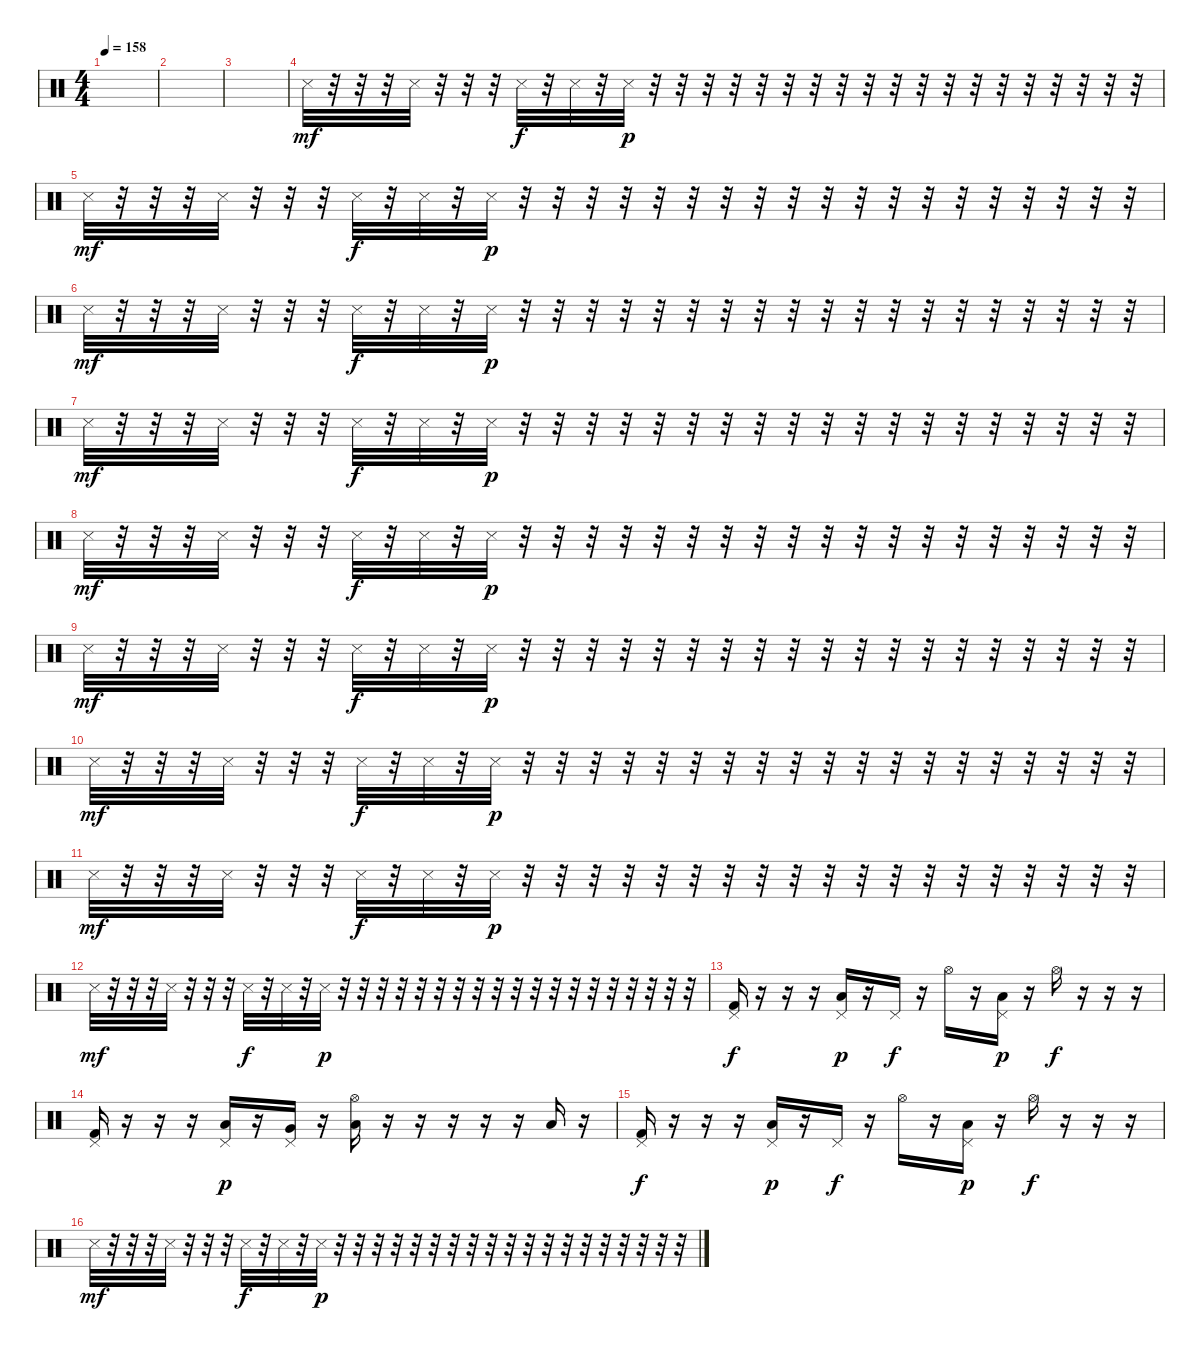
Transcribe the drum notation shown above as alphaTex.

\track ("   " "   ") {instrument percussion}
\staff
\articulation defaults
\ts (4 4)
\tempo 158
\clef neutral
\ks c
|
|
|
"Snare (side stick) 3".32{dy mf} r.32 r.32 r.32 "Snare (side stick) 3".32 r.32 r.32 r.32 "Snare (side stick) 3".32{dy f} r.32 "Snare (side stick) 3".32 r.32 "Snare (side stick) 3".32{dy p} r.32 r.32 r.32 r.32 r.32 r.32 r.32 r.32 r.32 r.32 r.32 r.32 r.32 r.32 r.32 r.32 r.32 r.32 r.32 |
"Snare (side stick) 3".32{dy mf} r.32 r.32 r.32 "Snare (side stick) 3".32 r.32 r.32 r.32 "Snare (side stick) 3".32{dy f} r.32 "Snare (side stick) 3".32 r.32 "Snare (side stick) 3".32{dy p} r.32 r.32 r.32 r.32 r.32 r.32 r.32 r.32 r.32 r.32 r.32 r.32 r.32 r.32 r.32 r.32 r.32 r.32 r.32 |
"Snare (side stick) 3".32{dy mf} r.32 r.32 r.32 "Snare (side stick) 3".32 r.32 r.32 r.32 "Snare (side stick) 3".32{dy f} r.32 "Snare (side stick) 3".32 r.32 "Snare (side stick) 3".32{dy p} r.32 r.32 r.32 r.32 r.32 r.32 r.32 r.32 r.32 r.32 r.32 r.32 r.32 r.32 r.32 r.32 r.32 r.32 r.32 |
"Snare (side stick) 3".32{dy mf} r.32 r.32 r.32 "Snare (side stick) 3".32 r.32 r.32 r.32 "Snare (side stick) 3".32{dy f} r.32 "Snare (side stick) 3".32 r.32 "Snare (side stick) 3".32{dy p} r.32 r.32 r.32 r.32 r.32 r.32 r.32 r.32 r.32 r.32 r.32 r.32 r.32 r.32 r.32 r.32 r.32 r.32 r.32 |
"Snare (side stick) 3".32{dy mf} r.32 r.32 r.32 "Snare (side stick) 3".32 r.32 r.32 r.32 "Snare (side stick) 3".32{dy f} r.32 "Snare (side stick) 3".32 r.32 "Snare (side stick) 3".32{dy p} r.32 r.32 r.32 r.32 r.32 r.32 r.32 r.32 r.32 r.32 r.32 r.32 r.32 r.32 r.32 r.32 r.32 r.32 r.32 |
"Snare (side stick) 3".32{dy mf} r.32 r.32 r.32 "Snare (side stick) 3".32 r.32 r.32 r.32 "Snare (side stick) 3".32{dy f} r.32 "Snare (side stick) 3".32 r.32 "Snare (side stick) 3".32{dy p} r.32 r.32 r.32 r.32 r.32 r.32 r.32 r.32 r.32 r.32 r.32 r.32 r.32 r.32 r.32 r.32 r.32 r.32 r.32 |
"Snare (side stick) 3".32{dy mf} r.32 r.32 r.32 "Snare (side stick) 3".32 r.32 r.32 r.32 "Snare (side stick) 3".32{dy f} r.32 "Snare (side stick) 3".32 r.32 "Snare (side stick) 3".32{dy p} r.32 r.32 r.32 r.32 r.32 r.32 r.32 r.32 r.32 r.32 r.32 r.32 r.32 r.32 r.32 r.32 r.32 r.32 r.32 |
"Snare (side stick) 3".32{dy mf} r.32 r.32 r.32 "Snare (side stick) 3".32 r.32 r.32 r.32 "Snare (side stick) 3".32{dy f} r.32 "Snare (side stick) 3".32 r.32 "Snare (side stick) 3".32{dy p} r.32 r.32 r.32 r.32 r.32 r.32 r.32 r.32 r.32 r.32 r.32 r.32 r.32 r.32 r.32 r.32 r.32 r.32 r.32 |
"Snare (side stick) 3".32{dy mf} r.32 r.32 r.32 "Snare (side stick) 3".32 r.32 r.32 r.32 "Snare (side stick) 3".32{dy f} r.32 "Snare (side stick) 3".32 r.32 "Snare (side stick) 3".32{dy p} r.32 r.32 r.32 r.32 r.32 r.32 r.32 r.32 r.32 r.32 r.32 r.32 r.32 r.32 r.32 r.32 r.32 r.32 r.32 |
("Pedal Hi-Hat (hit)" "Kick (hit) 2").16{dy f} r.16 r.16 r.16 ("Pedal Hi-Hat (hit)" "Low Tom (hit)").16{dy p} r.16 "Pedal Hi-Hat (hit)".16{dy f} r.16 "Hi-Hat (open)".16 r.16 ("Pedal Hi-Hat (hit)" "Low Tom (hit)").16{dy p} r.16 "Hi-Hat (open)".16{dy f} r.16 r.16 r.16 |
("Pedal Hi-Hat (hit)" "Kick (hit) 2").16 r.16 r.16 r.16 ("Pedal Hi-Hat (hit)" "Low Tom (hit)").16{dy p} r.16 ("Pedal Hi-Hat (hit)" "Very Low Tom (hit)").16 r.16 ("Hi-Hat (open)" "Low Tom (hit)").16 r.16 r.16 r.16 r.16 r.16 "Low Tom (hit)".16 r.16 |
("Pedal Hi-Hat (hit)" "Kick (hit) 2").16{dy f} r.16 r.16 r.16 ("Pedal Hi-Hat (hit)" "Low Tom (hit)").16{dy p} r.16 "Pedal Hi-Hat (hit)".16{dy f} r.16 "Hi-Hat (open)".16 r.16 ("Pedal Hi-Hat (hit)" "Low Tom (hit)").16{dy p} r.16 "Hi-Hat (open)".16{dy f} r.16 r.16 r.16 |
"Snare (side stick) 3".32{dy mf} r.32 r.32 r.32 "Snare (side stick) 3".32 r.32 r.32 r.32 "Snare (side stick) 3".32{dy f} r.32 "Snare (side stick) 3".32 r.32 "Snare (side stick) 3".32{dy p} r.32 r.32 r.32 r.32 r.32 r.32 r.32 r.32 r.32 r.32 r.32 r.32 r.32 r.32 r.32 r.32 r.32 r.32 r.32
